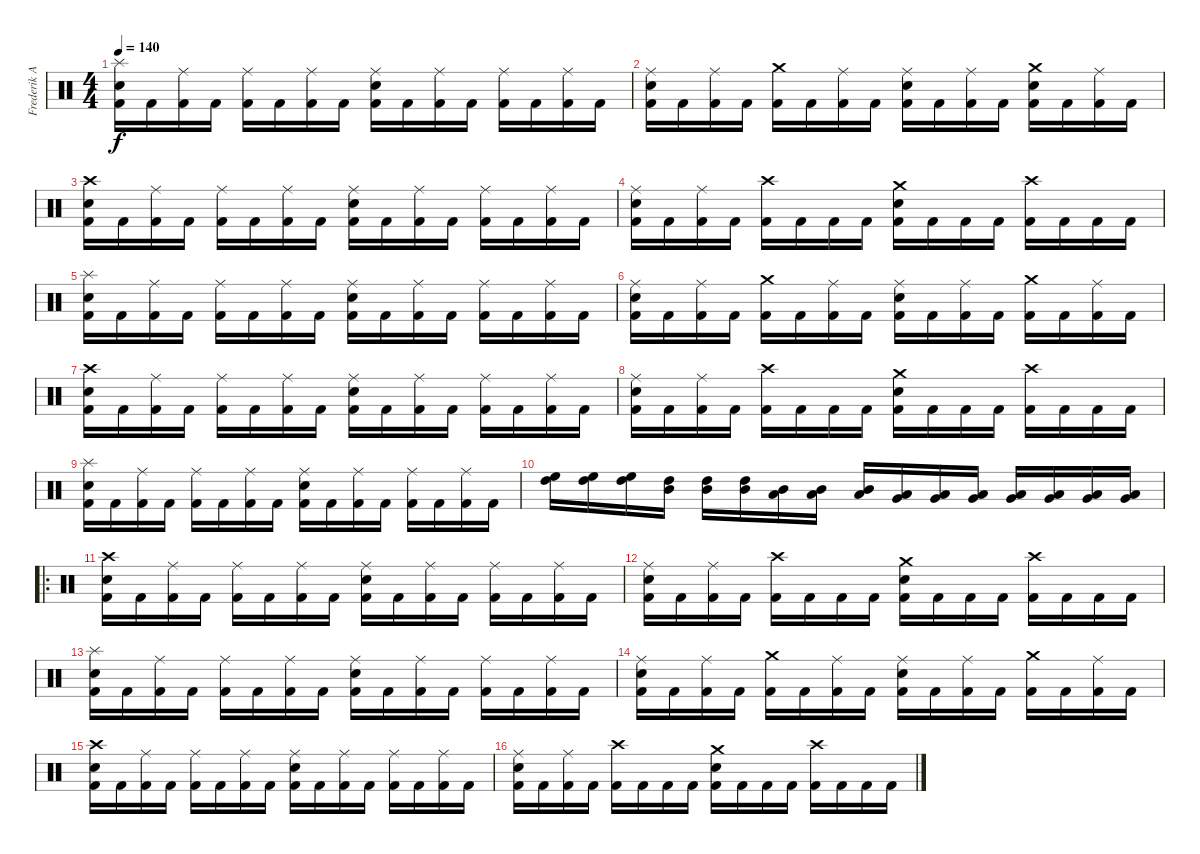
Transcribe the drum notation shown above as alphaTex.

\track ("Frederik Anderson" "Frederik A") {instrument percussion}
\staff {score}
\articulation defaults
\ts (4 4)
\tempo 140
\clef neutral
\ks c
("Splash (hit)" "Electric Snare (hit)" "Kick (hit) 2").16{dy f} "Kick (hit) 2".16 ("Ride (middle)" "Kick (hit) 2").16 "Kick (hit) 2".16 ("Ride (middle)" "Kick (hit) 2").16 "Kick (hit) 2".16 ("Ride (middle)" "Kick (hit) 2").16 "Kick (hit) 2".16 ("Ride (middle)" "Electric Snare (hit)" "Kick (hit) 2").16 "Kick (hit) 2".16 ("Ride (middle)" "Kick (hit) 2").16 "Kick (hit) 2".16 ("Ride (middle)" "Kick (hit) 2").16 "Kick (hit) 2".16 ("Ride (middle)" "Kick (hit) 2").16 "Kick (hit) 2".16 |
("Ride (middle)" "Electric Snare (hit)" "Kick (hit) 2").16 "Kick (hit) 2".16 ("Ride (middle)" "Kick (hit) 2").16 "Kick (hit) 2".16 ("Crash medium (hit)" "Kick (hit) 2").16 "Kick (hit) 2".16 ("Ride (middle)" "Kick (hit) 2").16 "Kick (hit) 2".16 ("Ride (middle)" "Electric Snare (hit)" "Kick (hit) 2").16 "Kick (hit) 2".16 ("Ride (middle)" "Kick (hit) 2").16 "Kick (hit) 2".16 ("Crash medium (hit)" "Electric Snare (hit)" "Kick (hit) 2").16 "Kick (hit) 2".16 ("Ride (middle)" "Kick (hit) 2").16 "Kick (hit) 2".16 |
("Crash high (hit)" "Electric Snare (hit)" "Kick (hit) 2").16 "Kick (hit) 2".16 ("Ride (middle)" "Kick (hit) 2").16 "Kick (hit) 2".16 ("Ride (middle)" "Kick (hit) 2").16 "Kick (hit) 2".16 ("Ride (middle)" "Kick (hit) 2").16 "Kick (hit) 2".16 ("Ride (middle)" "Electric Snare (hit)" "Kick (hit) 2").16 "Kick (hit) 2".16 ("Ride (middle)" "Kick (hit) 2").16 "Kick (hit) 2".16 ("Ride (middle)" "Kick (hit) 2").16 "Kick (hit) 2".16 ("Ride (middle)" "Kick (hit) 2").16 "Kick (hit) 2".16 |
("Ride (middle)" "Electric Snare (hit)" "Kick (hit) 2").16 "Kick (hit) 2".16 ("Ride (middle)" "Kick (hit) 2").16 "Kick (hit) 2".16 ("Crash high (hit)" "Kick (hit) 2").16 "Kick (hit) 2".16 "Kick (hit) 2".16 "Kick (hit) 2".16 ("Crash medium (hit)" "Electric Snare (hit)" "Kick (hit) 2").16 "Kick (hit) 2".16 "Kick (hit) 2".16 "Kick (hit) 2".16 ("Crash high (hit)" "Kick (hit) 2").16 "Kick (hit) 2".16 "Kick (hit) 2".16 "Kick (hit) 2".16 |
("Splash (hit)" "Electric Snare (hit)" "Kick (hit) 2").16 "Kick (hit) 2".16 ("Ride (middle)" "Kick (hit) 2").16 "Kick (hit) 2".16 ("Ride (middle)" "Kick (hit) 2").16 "Kick (hit) 2".16 ("Ride (middle)" "Kick (hit) 2").16 "Kick (hit) 2".16 ("Ride (middle)" "Electric Snare (hit)" "Kick (hit) 2").16 "Kick (hit) 2".16 ("Ride (middle)" "Kick (hit) 2").16 "Kick (hit) 2".16 ("Ride (middle)" "Kick (hit) 2").16 "Kick (hit) 2".16 ("Ride (middle)" "Kick (hit) 2").16 "Kick (hit) 2".16 |
("Ride (middle)" "Electric Snare (hit)" "Kick (hit) 2").16 "Kick (hit) 2".16 ("Ride (middle)" "Kick (hit) 2").16 "Kick (hit) 2".16 ("Crash medium (hit)" "Kick (hit) 2").16 "Kick (hit) 2".16 ("Ride (middle)" "Kick (hit) 2").16 "Kick (hit) 2".16 ("Ride (middle)" "Electric Snare (hit)" "Kick (hit) 2").16 "Kick (hit) 2".16 ("Ride (middle)" "Kick (hit) 2").16 "Kick (hit) 2".16 ("Crash medium (hit)" "Kick (hit) 2").16 "Kick (hit) 2".16 ("Ride (middle)" "Kick (hit) 2").16 "Kick (hit) 2".16 |
("Crash high (hit)" "Electric Snare (hit)" "Kick (hit) 2").16 "Kick (hit) 2".16 ("Ride (middle)" "Kick (hit) 2").16 "Kick (hit) 2".16 ("Ride (middle)" "Kick (hit) 2").16 "Kick (hit) 2".16 ("Ride (middle)" "Kick (hit) 2").16 "Kick (hit) 2".16 ("Ride (middle)" "Electric Snare (hit)" "Kick (hit) 2").16 "Kick (hit) 2".16 ("Ride (middle)" "Kick (hit) 2").16 "Kick (hit) 2".16 ("Ride (middle)" "Kick (hit) 2").16 "Kick (hit) 2".16 ("Ride (middle)" "Kick (hit) 2").16 "Kick (hit) 2".16 |
("Ride (middle)" "Electric Snare (hit)" "Kick (hit) 2").16 "Kick (hit) 2".16 ("Ride (middle)" "Kick (hit) 2").16 "Kick (hit) 2".16 ("Crash high (hit)" "Kick (hit) 2").16 "Kick (hit) 2".16 "Kick (hit) 2".16 "Kick (hit) 2".16 ("Crash medium (hit)" "Electric Snare (hit)" "Kick (hit) 2").16 "Kick (hit) 2".16 "Kick (hit) 2".16 "Kick (hit) 2".16 ("Crash high (hit)" "Kick (hit) 2").16 "Kick (hit) 2".16 "Kick (hit) 2".16 "Kick (hit) 2".16 |
("Splash (hit)" "Electric Snare (hit)" "Kick (hit) 2").16 "Kick (hit) 2".16 ("Ride (middle)" "Kick (hit) 2").16 "Kick (hit) 2".16 ("Ride (middle)" "Kick (hit) 2").16 "Kick (hit) 2".16 ("Ride (middle)" "Kick (hit) 2").16 "Kick (hit) 2".16 ("Ride (middle)" "Electric Snare (hit)" "Kick (hit) 2").16 "Kick (hit) 2".16 ("Ride (middle)" "Kick (hit) 2").16 "Kick (hit) 2".16 ("Ride (middle)" "Kick (hit) 2").16 "Kick (hit) 2".16 ("Ride (middle)" "Kick (hit) 2").16 "Kick (hit) 2".16 |
("High Floor Tom (hit)" "High Tom (hit)").16 ("High Floor Tom (hit)" "High Tom (hit)").16 ("High Floor Tom (hit)" "High Tom (hit)").16 ("High Tom (hit)" "Mid Tom (hit)").16 ("High Tom (hit)" "Mid Tom (hit)").16 ("High Tom (hit)" "Mid Tom (hit)").16 ("Mid Tom (hit)" "Low Tom (hit)").16 ("Mid Tom (hit)" "Low Tom (hit)").16 ("Mid Tom (hit)" "Low Tom (hit)").16 ("Low Tom (hit)" "Very Low Tom (hit)").16 ("Low Tom (hit)" "Very Low Tom (hit)").16 ("Low Tom (hit)" "Very Low Tom (hit)").16 ("Very Low Tom (hit)" "Low Floor Tom (hit)").16 ("Very Low Tom (hit)" "Low Floor Tom (hit)").16 ("Very Low Tom (hit)" "Low Floor Tom (hit)").16 ("Very Low Tom (hit)" "Low Floor Tom (hit)").16 |
\ro
("Crash high (hit)" "Electric Snare (hit)" "Kick (hit) 2").16 "Kick (hit) 2".16 ("Ride (middle)" "Kick (hit) 2").16 "Kick (hit) 2".16 ("Ride (middle)" "Kick (hit) 2").16 "Kick (hit) 2".16 ("Ride (middle)" "Kick (hit) 2").16 "Kick (hit) 2".16 ("Ride (middle)" "Electric Snare (hit)" "Kick (hit) 2").16 "Kick (hit) 2".16 ("Ride (middle)" "Kick (hit) 2").16 "Kick (hit) 2".16 ("Ride (middle)" "Kick (hit) 2").16 "Kick (hit) 2".16 ("Ride (middle)" "Kick (hit) 2").16 "Kick (hit) 2".16 |
("Ride (middle)" "Electric Snare (hit)" "Kick (hit) 2").16 "Kick (hit) 2".16 ("Ride (middle)" "Kick (hit) 2").16 "Kick (hit) 2".16 ("Crash high (hit)" "Kick (hit) 2").16 "Kick (hit) 2".16 "Kick (hit) 2".16 "Kick (hit) 2".16 ("Crash medium (hit)" "Electric Snare (hit)" "Kick (hit) 2").16 "Kick (hit) 2".16 "Kick (hit) 2".16 "Kick (hit) 2".16 ("Crash high (hit)" "Kick (hit) 2").16 "Kick (hit) 2".16 "Kick (hit) 2".16 "Kick (hit) 2".16 |
("Splash (hit)" "Electric Snare (hit)" "Kick (hit) 2").16 "Kick (hit) 2".16 ("Ride (middle)" "Kick (hit) 2").16 "Kick (hit) 2".16 ("Ride (middle)" "Kick (hit) 2").16 "Kick (hit) 2".16 ("Ride (middle)" "Kick (hit) 2").16 "Kick (hit) 2".16 ("Ride (middle)" "Electric Snare (hit)" "Kick (hit) 2").16 "Kick (hit) 2".16 ("Ride (middle)" "Kick (hit) 2").16 "Kick (hit) 2".16 ("Ride (middle)" "Kick (hit) 2").16 "Kick (hit) 2".16 ("Ride (middle)" "Kick (hit) 2").16 "Kick (hit) 2".16 |
("Ride (middle)" "Electric Snare (hit)" "Kick (hit) 2").16 "Kick (hit) 2".16 ("Ride (middle)" "Kick (hit) 2").16 "Kick (hit) 2".16 ("Crash medium (hit)" "Kick (hit) 2").16 "Kick (hit) 2".16 ("Ride (middle)" "Kick (hit) 2").16 "Kick (hit) 2".16 ("Ride (middle)" "Electric Snare (hit)" "Kick (hit) 2").16 "Kick (hit) 2".16 ("Ride (middle)" "Kick (hit) 2").16 "Kick (hit) 2".16 ("Crash medium (hit)" "Kick (hit) 2").16 "Kick (hit) 2".16 ("Ride (middle)" "Kick (hit) 2").16 "Kick (hit) 2".16 |
("Crash high (hit)" "Electric Snare (hit)" "Kick (hit) 2").16 "Kick (hit) 2".16 ("Ride (middle)" "Kick (hit) 2").16 "Kick (hit) 2".16 ("Ride (middle)" "Kick (hit) 2").16 "Kick (hit) 2".16 ("Ride (middle)" "Kick (hit) 2").16 "Kick (hit) 2".16 ("Ride (middle)" "Electric Snare (hit)" "Kick (hit) 2").16 "Kick (hit) 2".16 ("Ride (middle)" "Kick (hit) 2").16 "Kick (hit) 2".16 ("Ride (middle)" "Kick (hit) 2").16 "Kick (hit) 2".16 ("Ride (middle)" "Kick (hit) 2").16 "Kick (hit) 2".16 |
("Ride (middle)" "Electric Snare (hit)" "Kick (hit) 2").16 "Kick (hit) 2".16 ("Ride (middle)" "Kick (hit) 2").16 "Kick (hit) 2".16 ("Crash high (hit)" "Kick (hit) 2").16 "Kick (hit) 2".16 "Kick (hit) 2".16 "Kick (hit) 2".16 ("Crash medium (hit)" "Electric Snare (hit)" "Kick (hit) 2").16 "Kick (hit) 2".16 "Kick (hit) 2".16 "Kick (hit) 2".16 ("Crash high (hit)" "Kick (hit) 2").16 "Kick (hit) 2".16 "Kick (hit) 2".16 "Kick (hit) 2".16
